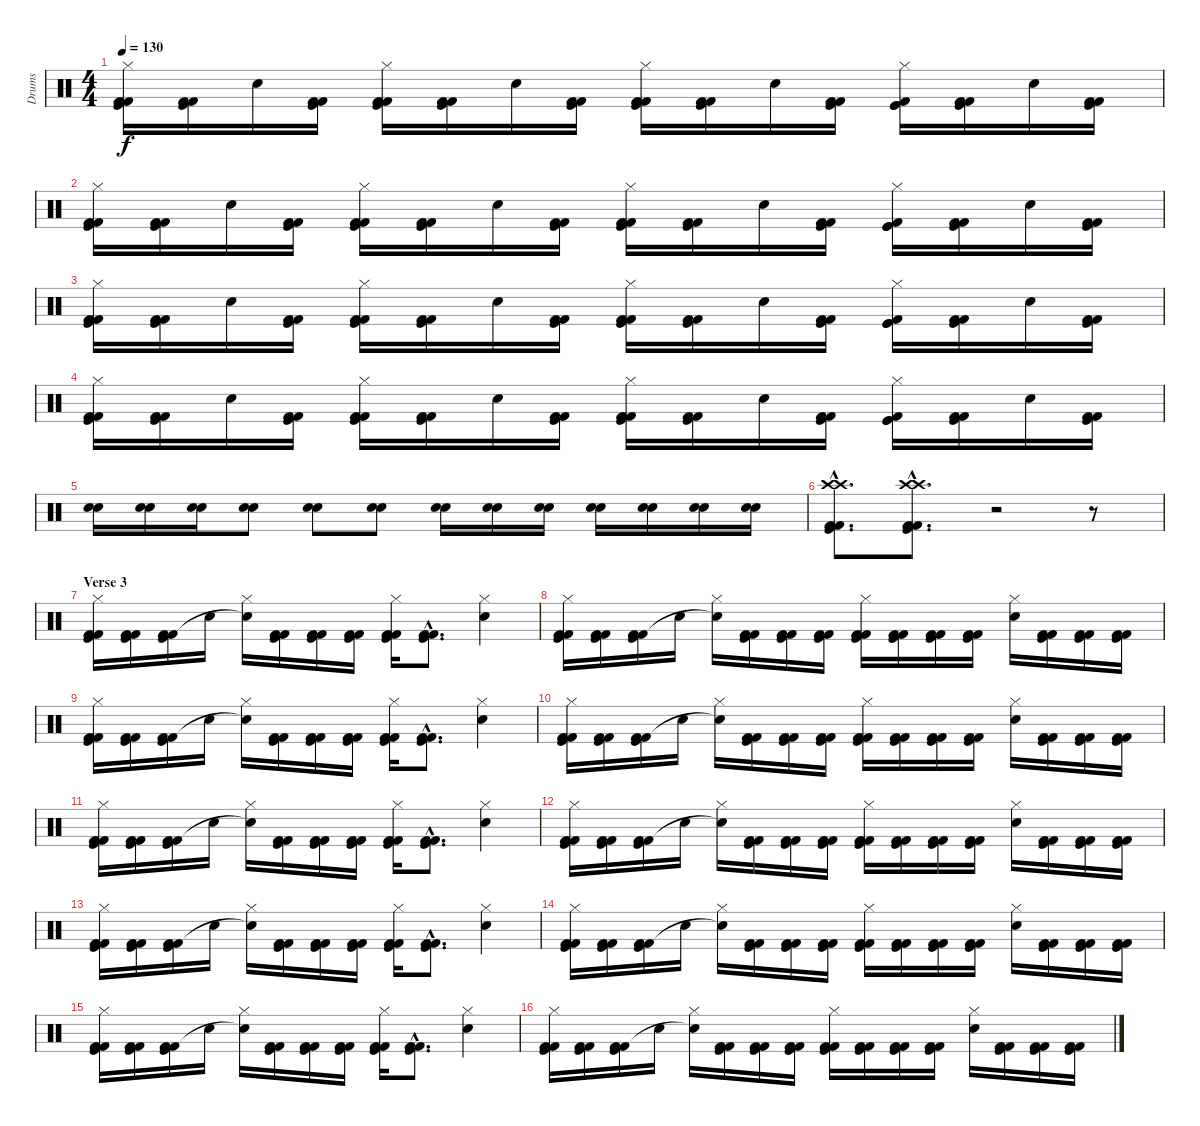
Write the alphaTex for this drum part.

\track ("Drums" "Drums") {instrument percussion}
\staff {score}
\articulation defaults
\ts (4 4)
\tempo 130
\clef neutral
\ks c
("Hi-Hat (closed)" "Kick (hit)" "Kick (hit) 2" "Kick (hit) 2").16{dy f} ("Kick (hit)" "Kick (hit) 2" "Kick (hit) 2").16 "Electric Snare (hit)".16 ("Kick (hit)" "Kick (hit) 2" "Kick (hit) 2").16 ("Hi-Hat (closed)" "Kick (hit)" "Kick (hit) 2" "Kick (hit) 2").16 ("Kick (hit)" "Kick (hit) 2" "Kick (hit) 2").16 "Electric Snare (hit)".16 ("Kick (hit)" "Kick (hit) 2" "Kick (hit) 2").16 ("Hi-Hat (closed)" "Kick (hit)" "Kick (hit) 2" "Kick (hit) 2").16 ("Kick (hit)" "Kick (hit) 2" "Kick (hit) 2").16 "Electric Snare (hit)".16 ("Kick (hit)" "Kick (hit) 2" "Kick (hit) 2").16 ("Hi-Hat (closed)" "Kick (hit)" "Kick (hit)" "Kick (hit) 2").16 ("Kick (hit)" "Kick (hit) 2" "Kick (hit) 2").16 "Electric Snare (hit)".16 ("Kick (hit)" "Kick (hit) 2" "Kick (hit) 2").16 |
("Hi-Hat (closed)" "Kick (hit)" "Kick (hit) 2" "Kick (hit) 2").16 ("Kick (hit)" "Kick (hit) 2" "Kick (hit) 2").16 "Electric Snare (hit)".16 ("Kick (hit)" "Kick (hit) 2" "Kick (hit) 2").16 ("Hi-Hat (closed)" "Kick (hit)" "Kick (hit) 2" "Kick (hit) 2").16 ("Kick (hit)" "Kick (hit) 2" "Kick (hit) 2").16 "Electric Snare (hit)".16 ("Kick (hit)" "Kick (hit) 2" "Kick (hit) 2").16 ("Hi-Hat (closed)" "Kick (hit)" "Kick (hit) 2" "Kick (hit) 2").16 ("Kick (hit)" "Kick (hit) 2" "Kick (hit) 2").16 "Electric Snare (hit)".16 ("Kick (hit)" "Kick (hit) 2" "Kick (hit) 2").16 ("Hi-Hat (closed)" "Kick (hit)" "Kick (hit)" "Kick (hit) 2").16 ("Kick (hit)" "Kick (hit) 2" "Kick (hit) 2").16 "Electric Snare (hit)".16 ("Kick (hit)" "Kick (hit) 2" "Kick (hit) 2").16 |
("Hi-Hat (closed)" "Kick (hit)" "Kick (hit) 2" "Kick (hit) 2").16 ("Kick (hit)" "Kick (hit) 2" "Kick (hit) 2").16 "Electric Snare (hit)".16 ("Kick (hit)" "Kick (hit) 2" "Kick (hit) 2").16 ("Hi-Hat (closed)" "Kick (hit)" "Kick (hit) 2" "Kick (hit) 2").16 ("Kick (hit)" "Kick (hit) 2" "Kick (hit) 2").16 "Electric Snare (hit)".16 ("Kick (hit)" "Kick (hit) 2" "Kick (hit) 2").16 ("Hi-Hat (closed)" "Kick (hit)" "Kick (hit) 2" "Kick (hit) 2").16 ("Kick (hit)" "Kick (hit) 2" "Kick (hit) 2").16 "Electric Snare (hit)".16 ("Kick (hit)" "Kick (hit) 2" "Kick (hit) 2").16 ("Hi-Hat (closed)" "Kick (hit)" "Kick (hit)" "Kick (hit) 2").16 ("Kick (hit)" "Kick (hit) 2" "Kick (hit) 2").16 "Electric Snare (hit)".16 ("Kick (hit)" "Kick (hit) 2" "Kick (hit) 2").16 |
("Hi-Hat (closed)" "Kick (hit)" "Kick (hit) 2" "Kick (hit) 2").16 ("Kick (hit)" "Kick (hit) 2" "Kick (hit) 2").16 "Electric Snare (hit)".16 ("Kick (hit)" "Kick (hit) 2" "Kick (hit) 2").16 ("Hi-Hat (closed)" "Kick (hit)" "Kick (hit) 2" "Kick (hit) 2").16 ("Kick (hit)" "Kick (hit) 2" "Kick (hit) 2").16 "Electric Snare (hit)".16 ("Kick (hit)" "Kick (hit) 2" "Kick (hit) 2").16 ("Hi-Hat (closed)" "Kick (hit)" "Kick (hit) 2" "Kick (hit) 2").16 ("Kick (hit)" "Kick (hit) 2" "Kick (hit) 2").16 "Electric Snare (hit)".16 ("Kick (hit)" "Kick (hit) 2" "Kick (hit) 2").16 ("Hi-Hat (closed)" "Kick (hit)" "Kick (hit)" "Kick (hit) 2").16 ("Kick (hit)" "Kick (hit) 2" "Kick (hit) 2").16 "Electric Snare (hit)".16 ("Kick (hit)" "Kick (hit) 2" "Kick (hit) 2").16 |
("Electric Snare (hit)" "Electric Snare (hit)").16 ("Electric Snare (hit)" "Electric Snare (hit)").16 ("Electric Snare (hit)" "Electric Snare (hit)").16 ("Electric Snare (hit)" "Electric Snare (hit)").8 ("Electric Snare (hit)" "Electric Snare (hit)").8 ("Electric Snare (hit)" "Electric Snare (hit)").8 ("Electric Snare (hit)" "Electric Snare (hit)").16 ("Electric Snare (hit)" "Electric Snare (hit)").16 ("Electric Snare (hit)" "Electric Snare (hit)").16 ("Electric Snare (hit)" "Electric Snare (hit)").16 ("Electric Snare (hit)" "Electric Snare (hit)").16 ("Electric Snare (hit)" "Electric Snare (hit)").16 ("Electric Snare (hit)" "Electric Snare (hit)").16 |
("Crash high (hit)"{hac} "Crash high (hit)"{hac} "Kick (hit)"{hac} "Kick (hit) 2"{hac} "Kick (hit) 2"{hac}).8{d} ("Crash high (hit)"{hac} "Crash high (hit)"{hac} "Kick (hit)"{hac} "Kick (hit) 2"{hac} "Kick (hit) 2"{hac}).8{d} r.2 r.8 |
\section ("" "Verse 3")
("Hi-Hat (closed)" "Kick (hit)" "Kick (hit) 2" "Kick (hit) 2").16 ("Kick (hit)" "Kick (hit) 2" "Kick (hit) 2").16 ("Kick (hit)" "Kick (hit) 2" "Kick (hit) 2").16 "Electric Snare (hit)".16 ("Hi-Hat (closed)" "Snare (hit)"{t}).16 ("Kick (hit)" "Kick (hit) 2" "Kick (hit) 2").16 ("Kick (hit)" "Kick (hit) 2" "Kick (hit) 2").16 ("Kick (hit)" "Kick (hit) 2" "Kick (hit) 2").16 ("Hi-Hat (closed)" "Kick (hit)" "Kick (hit) 2" "Kick (hit) 2").16 ("Kick (hit)"{hac} "Kick (hit) 2"{hac} "Kick (hit) 2"{hac}).8{d} ("Hi-Hat (closed)" "Electric Snare (hit)").4 |
("Hi-Hat (closed)" "Kick (hit)" "Kick (hit) 2" "Kick (hit) 2").16 ("Kick (hit)" "Kick (hit) 2" "Kick (hit) 2").16 ("Kick (hit)" "Kick (hit) 2" "Kick (hit) 2").16 "Electric Snare (hit)".16 ("Hi-Hat (closed)" "Snare (hit)"{t}).16 ("Kick (hit)" "Kick (hit) 2" "Kick (hit) 2").16 ("Kick (hit)" "Kick (hit) 2" "Kick (hit) 2").16 ("Kick (hit)" "Kick (hit) 2" "Kick (hit) 2").16 ("Hi-Hat (closed)" "Kick (hit)" "Kick (hit) 2" "Kick (hit) 2").16 ("Kick (hit)" "Kick (hit) 2" "Kick (hit) 2").16 ("Kick (hit)" "Kick (hit) 2" "Kick (hit) 2").16 ("Kick (hit)" "Kick (hit) 2" "Kick (hit) 2").16 ("Hi-Hat (closed)" "Electric Snare (hit)").16 ("Kick (hit)" "Kick (hit) 2" "Kick (hit) 2").16 ("Kick (hit)" "Kick (hit) 2" "Kick (hit) 2").16 ("Kick (hit)" "Kick (hit) 2" "Kick (hit) 2").16 |
("Hi-Hat (closed)" "Kick (hit)" "Kick (hit) 2" "Kick (hit) 2").16 ("Kick (hit)" "Kick (hit) 2" "Kick (hit) 2").16 ("Kick (hit)" "Kick (hit) 2" "Kick (hit) 2").16 "Electric Snare (hit)".16 ("Hi-Hat (closed)" "Snare (hit)"{t}).16 ("Kick (hit)" "Kick (hit) 2" "Kick (hit) 2").16 ("Kick (hit)" "Kick (hit) 2" "Kick (hit) 2").16 ("Kick (hit)" "Kick (hit) 2" "Kick (hit) 2").16 ("Hi-Hat (closed)" "Kick (hit)" "Kick (hit) 2" "Kick (hit) 2").16 ("Kick (hit)"{hac} "Kick (hit) 2"{hac} "Kick (hit) 2"{hac}).8{d} ("Hi-Hat (closed)" "Electric Snare (hit)").4 |
("Hi-Hat (closed)" "Kick (hit)" "Kick (hit) 2" "Kick (hit) 2").16 ("Kick (hit)" "Kick (hit) 2" "Kick (hit) 2").16 ("Kick (hit)" "Kick (hit) 2" "Kick (hit) 2").16 "Electric Snare (hit)".16 ("Hi-Hat (closed)" "Snare (hit)"{t}).16 ("Kick (hit)" "Kick (hit) 2" "Kick (hit) 2").16 ("Kick (hit)" "Kick (hit) 2" "Kick (hit) 2").16 ("Kick (hit)" "Kick (hit) 2" "Kick (hit) 2").16 ("Hi-Hat (closed)" "Kick (hit)" "Kick (hit) 2" "Kick (hit) 2").16 ("Kick (hit)" "Kick (hit) 2" "Kick (hit) 2").16 ("Kick (hit)" "Kick (hit) 2" "Kick (hit) 2").16 ("Kick (hit)" "Kick (hit) 2" "Kick (hit) 2").16 ("Hi-Hat (closed)" "Electric Snare (hit)").16 ("Kick (hit)" "Kick (hit) 2" "Kick (hit) 2").16 ("Kick (hit)" "Kick (hit) 2" "Kick (hit) 2").16 ("Kick (hit)" "Kick (hit) 2" "Kick (hit) 2").16 |
("Hi-Hat (closed)" "Kick (hit)" "Kick (hit) 2" "Kick (hit) 2").16 ("Kick (hit)" "Kick (hit) 2" "Kick (hit) 2").16 ("Kick (hit)" "Kick (hit) 2" "Kick (hit) 2").16 "Electric Snare (hit)".16 ("Hi-Hat (closed)" "Snare (hit)"{t}).16 ("Kick (hit)" "Kick (hit) 2" "Kick (hit) 2").16 ("Kick (hit)" "Kick (hit) 2" "Kick (hit) 2").16 ("Kick (hit)" "Kick (hit) 2" "Kick (hit) 2").16 ("Hi-Hat (closed)" "Kick (hit)" "Kick (hit) 2" "Kick (hit) 2").16 ("Kick (hit)"{hac} "Kick (hit) 2"{hac} "Kick (hit) 2"{hac}).8{d} ("Hi-Hat (closed)" "Electric Snare (hit)").4 |
("Hi-Hat (closed)" "Kick (hit)" "Kick (hit) 2" "Kick (hit) 2").16 ("Kick (hit)" "Kick (hit) 2" "Kick (hit) 2").16 ("Kick (hit)" "Kick (hit) 2" "Kick (hit) 2").16 "Electric Snare (hit)".16 ("Hi-Hat (closed)" "Snare (hit)"{t}).16 ("Kick (hit)" "Kick (hit) 2" "Kick (hit) 2").16 ("Kick (hit)" "Kick (hit) 2" "Kick (hit) 2").16 ("Kick (hit)" "Kick (hit) 2" "Kick (hit) 2").16 ("Hi-Hat (closed)" "Kick (hit)" "Kick (hit) 2" "Kick (hit) 2").16 ("Kick (hit)" "Kick (hit) 2" "Kick (hit) 2").16 ("Kick (hit)" "Kick (hit) 2" "Kick (hit) 2").16 ("Kick (hit)" "Kick (hit) 2" "Kick (hit) 2").16 ("Hi-Hat (closed)" "Electric Snare (hit)").16 ("Kick (hit)" "Kick (hit) 2" "Kick (hit) 2").16 ("Kick (hit)" "Kick (hit) 2" "Kick (hit) 2").16 ("Kick (hit)" "Kick (hit) 2" "Kick (hit) 2").16 |
("Hi-Hat (closed)" "Kick (hit)" "Kick (hit) 2" "Kick (hit) 2").16 ("Kick (hit)" "Kick (hit) 2" "Kick (hit) 2").16 ("Kick (hit)" "Kick (hit) 2" "Kick (hit) 2").16 "Electric Snare (hit)".16 ("Hi-Hat (closed)" "Snare (hit)"{t}).16 ("Kick (hit)" "Kick (hit) 2" "Kick (hit) 2").16 ("Kick (hit)" "Kick (hit) 2" "Kick (hit) 2").16 ("Kick (hit)" "Kick (hit) 2" "Kick (hit) 2").16 ("Hi-Hat (closed)" "Kick (hit)" "Kick (hit) 2" "Kick (hit) 2").16 ("Kick (hit)"{hac} "Kick (hit) 2"{hac} "Kick (hit) 2"{hac}).8{d} ("Hi-Hat (closed)" "Electric Snare (hit)").4 |
("Hi-Hat (closed)" "Kick (hit)" "Kick (hit) 2" "Kick (hit) 2").16 ("Kick (hit)" "Kick (hit) 2" "Kick (hit) 2").16 ("Kick (hit)" "Kick (hit) 2" "Kick (hit) 2").16 "Electric Snare (hit)".16 ("Hi-Hat (closed)" "Snare (hit)"{t}).16 ("Kick (hit)" "Kick (hit) 2" "Kick (hit) 2").16 ("Kick (hit)" "Kick (hit) 2" "Kick (hit) 2").16 ("Kick (hit)" "Kick (hit) 2" "Kick (hit) 2").16 ("Hi-Hat (closed)" "Kick (hit)" "Kick (hit) 2" "Kick (hit) 2").16 ("Kick (hit)" "Kick (hit) 2" "Kick (hit) 2").16 ("Kick (hit)" "Kick (hit) 2" "Kick (hit) 2").16 ("Kick (hit)" "Kick (hit) 2" "Kick (hit) 2").16 ("Hi-Hat (closed)" "Electric Snare (hit)").16 ("Kick (hit)" "Kick (hit) 2" "Kick (hit) 2").16 ("Kick (hit)" "Kick (hit) 2" "Kick (hit) 2").16 ("Kick (hit)" "Kick (hit) 2" "Kick (hit) 2").16 |
("Hi-Hat (closed)" "Kick (hit)" "Kick (hit) 2" "Kick (hit) 2").16 ("Kick (hit)" "Kick (hit) 2" "Kick (hit) 2").16 ("Kick (hit)" "Kick (hit) 2" "Kick (hit) 2").16 "Electric Snare (hit)".16 ("Hi-Hat (closed)" "Snare (hit)"{t}).16 ("Kick (hit)" "Kick (hit) 2" "Kick (hit) 2").16 ("Kick (hit)" "Kick (hit) 2" "Kick (hit) 2").16 ("Kick (hit)" "Kick (hit) 2" "Kick (hit) 2").16 ("Hi-Hat (closed)" "Kick (hit)" "Kick (hit) 2" "Kick (hit) 2").16 ("Kick (hit)"{hac} "Kick (hit) 2"{hac} "Kick (hit) 2"{hac}).8{d} ("Hi-Hat (closed)" "Electric Snare (hit)").4 |
("Hi-Hat (closed)" "Kick (hit)" "Kick (hit) 2" "Kick (hit) 2").16 ("Kick (hit)" "Kick (hit) 2" "Kick (hit) 2").16 ("Kick (hit)" "Kick (hit) 2" "Kick (hit) 2").16 "Electric Snare (hit)".16 ("Hi-Hat (closed)" "Snare (hit)"{t}).16 ("Kick (hit)" "Kick (hit) 2" "Kick (hit) 2").16 ("Kick (hit)" "Kick (hit) 2" "Kick (hit) 2").16 ("Kick (hit)" "Kick (hit) 2" "Kick (hit) 2").16 ("Hi-Hat (closed)" "Kick (hit)" "Kick (hit) 2" "Kick (hit) 2").16 ("Kick (hit)" "Kick (hit) 2" "Kick (hit) 2").16 ("Kick (hit)" "Kick (hit) 2" "Kick (hit) 2").16 ("Kick (hit)" "Kick (hit) 2" "Kick (hit) 2").16 ("Hi-Hat (closed)" "Electric Snare (hit)").16 ("Kick (hit)" "Kick (hit) 2" "Kick (hit) 2").16 ("Kick (hit)" "Kick (hit) 2" "Kick (hit) 2").16 ("Kick (hit)" "Kick (hit) 2" "Kick (hit) 2").16
